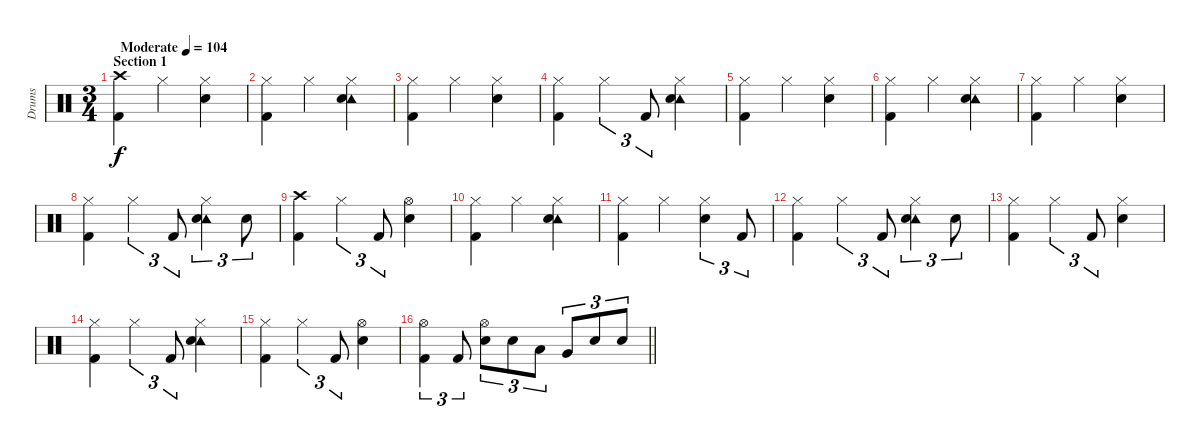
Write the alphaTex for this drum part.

\track ("Drums" "Drums") {instrument percussion}
\staff {score}
\articulation defaults
\ts (3 4)
\section ("" "Section 1")
\tempo (104 "Moderate")
\clef neutral
\ks c
("Crash high (hit)" "Kick (hit) 2").4{dy f} "Hi-Hat (closed)".4 ("Hi-Hat (closed)" "Snare (hit) 2").4 |
("Hi-Hat (closed)" "Kick (hit) 2").4 "Hi-Hat (closed)".4 ("Hi-Hat (closed)" "Tambourine (hit)" "Snare (hit) 2").4 |
("Hi-Hat (closed)" "Kick (hit) 2").4 "Hi-Hat (closed)".4 ("Hi-Hat (closed)" "Snare (hit) 2").4 |
("Hi-Hat (closed)" "Kick (hit) 2").4 "Hi-Hat (closed)".4{tu (3 2)} "Kick (hit) 2".8{tu (3 2)} ("Hi-Hat (closed)" "Tambourine (hit)" "Snare (hit) 2").4 |
("Hi-Hat (closed)" "Kick (hit) 2").4 "Hi-Hat (closed)".4 ("Hi-Hat (closed)" "Snare (hit) 2").4 |
("Hi-Hat (closed)" "Kick (hit) 2").4 "Hi-Hat (closed)".4 ("Hi-Hat (closed)" "Tambourine (hit)" "Snare (hit) 2").4 |
("Hi-Hat (closed)" "Kick (hit) 2").4 "Hi-Hat (closed)".4 ("Hi-Hat (closed)" "Snare (hit) 2").4 |
("Hi-Hat (closed)" "Kick (hit) 2").4 "Hi-Hat (closed)".4{tu (3 2)} "Kick (hit) 2".8{tu (3 2)} ("Hi-Hat (closed)" "Tambourine (hit)" "Snare (hit) 2").4{tu (3 2)} "Snare (hit) 2".8{tu (3 2)} |
("Crash high (hit)" "Kick (hit) 2").4 "Hi-Hat (closed)".4{tu (3 2)} "Kick (hit) 2".8{tu (3 2)} ("Hi-Hat (open)" "Snare (hit) 2").4 |
("Hi-Hat (closed)" "Kick (hit) 2").4 "Hi-Hat (closed)".4 ("Hi-Hat (closed)" "Tambourine (hit)" "Snare (hit) 2").4 |
("Hi-Hat (closed)" "Kick (hit) 2").4 "Hi-Hat (closed)".4 ("Hi-Hat (closed)" "Snare (hit) 2").4{tu (3 2)} "Kick (hit) 2".8{tu (3 2)} |
("Hi-Hat (closed)" "Kick (hit) 2").4 "Hi-Hat (closed)".4{tu (3 2)} "Kick (hit) 2".8{tu (3 2)} ("Hi-Hat (closed)" "Tambourine (hit)" "Snare (hit) 2").4{tu (3 2)} "Snare (hit) 2".8{tu (3 2)} |
("Hi-Hat (closed)" "Kick (hit) 2").4 "Hi-Hat (closed)".4{tu (3 2)} "Kick (hit) 2".8{tu (3 2)} ("Hi-Hat (closed)" "Snare (hit) 2").4 |
("Hi-Hat (closed)" "Kick (hit) 2").4 "Hi-Hat (closed)".4{tu (3 2)} "Kick (hit) 2".8{tu (3 2)} ("Hi-Hat (closed)" "Tambourine (hit)" "Snare (hit) 2").4 |
("Hi-Hat (closed)" "Kick (hit) 2").4 "Hi-Hat (closed)".4{tu (3 2)} "Kick (hit) 2".8{tu (3 2)} ("Hi-Hat (open)" "Snare (hit) 2").4 |
\barLineRight lightlight
("Hi-Hat (open)" "Kick (hit) 2").4{tu (3 2)} "Kick (hit) 2".8{tu (3 2)} ("Hi-Hat (open)" "Snare (hit) 2").8{tu (3 2)} "Snare (hit) 2".8{tu (3 2)} "Low Tom (hit)".8{tu (3 2)} "Very Low Tom (hit)".8{tu (3 2)} "Snare (hit) 2".8{tu (3 2)} "Snare (hit) 2".8{tu (3 2)}
